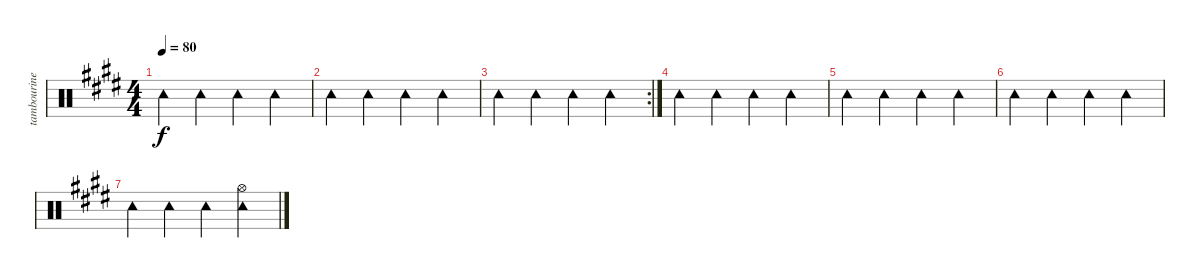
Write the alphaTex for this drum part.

\track ("tambourine" "tambourine") {instrument percussion}
\staff {score}
\articulation defaults
\ts (4 4)
\tempo 80
\clef neutral
\ks e "Tambourine (hit)".4{dy f} "Tambourine (hit)".4 "Tambourine (hit)".4 "Tambourine (hit)".4
|
"Tambourine (hit)".4 "Tambourine (hit)".4 "Tambourine (hit)".4 "Tambourine (hit)".4 |
\rc 2 "Tambourine (hit)".4 "Tambourine (hit)".4 "Tambourine (hit)".4 "Tambourine (hit)".4
|
"Tambourine (hit)".4 "Tambourine (hit)".4 "Tambourine (hit)".4 "Tambourine (hit)".4 |
"Tambourine (hit)".4 "Tambourine (hit)".4 "Tambourine (hit)".4 "Tambourine (hit)".4 |
"Tambourine (hit)".4 "Tambourine (hit)".4 "Tambourine (hit)".4 "Tambourine (hit)".4 |
"Tambourine (hit)".4 "Tambourine (hit)".4 "Tambourine (hit)".4 ("Hi-Hat (open)" "Tambourine (hit)").4
